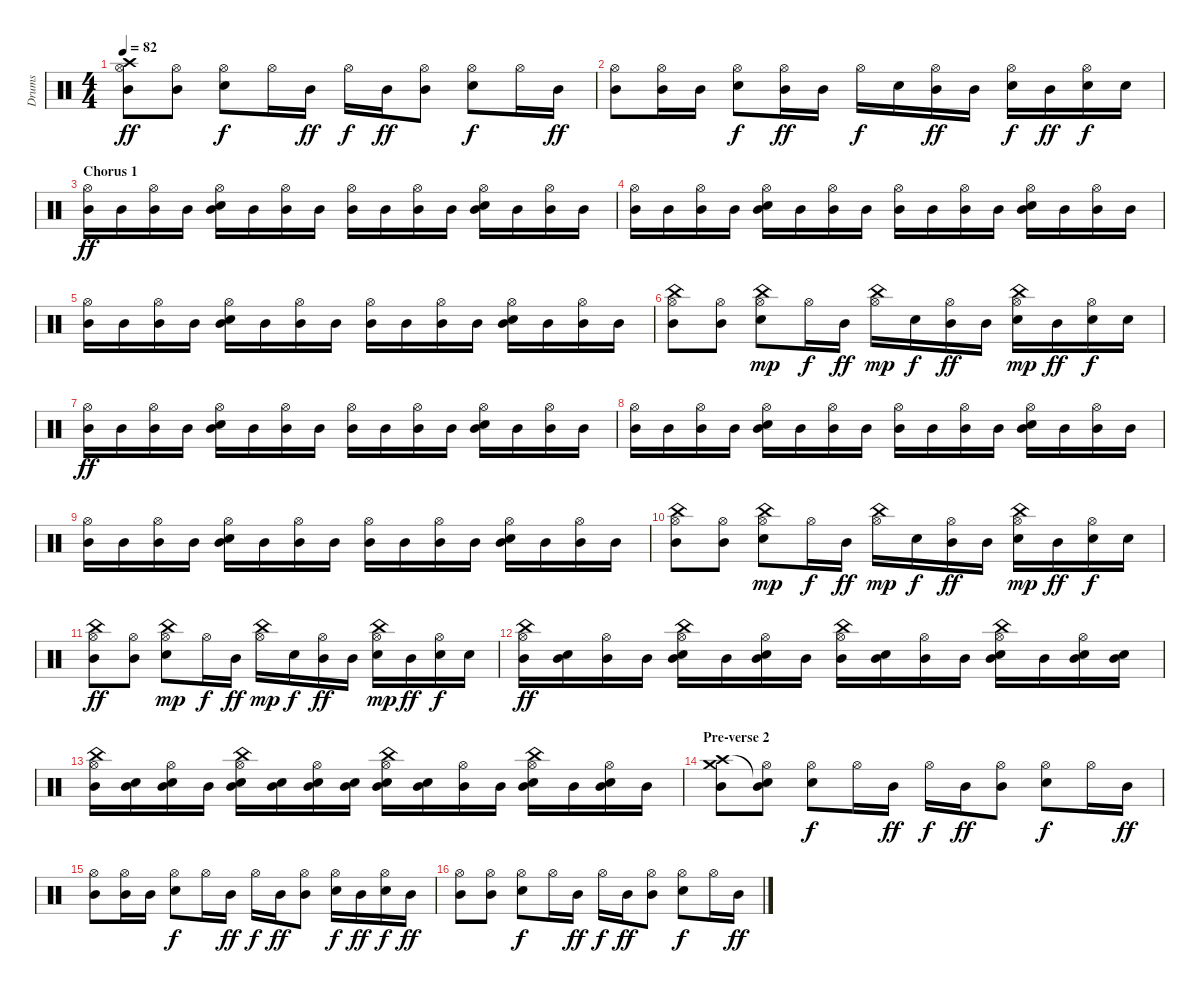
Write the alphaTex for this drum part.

\track ("Drums" "Drums") {instrument percussion}
\staff {score}
\articulation defaults
\ts (4 4)
\tempo 82
\clef neutral
\ks c
("Hi-Hat (open)" "Crash high (hit)" "Mid Tom (hit)").8{dy ff} ("Hi-Hat (open)" "Mid Tom (hit)").8 ("Hi-Hat (open)" "Electric Snare (hit)").8{dy f} "Hi-Hat (open)".16 "Mid Tom (hit)".16{dy ff} "Hi-Hat (open)".16{dy f} "Mid Tom (hit)".16{dy ff} ("Hi-Hat (open)" "Mid Tom (hit)").8 ("Hi-Hat (open)" "Electric Snare (hit)").8{dy f} "Hi-Hat (open)".16 "Mid Tom (hit)".16{dy ff} |
("Hi-Hat (open)" "Mid Tom (hit)").8 ("Hi-Hat (open)" "Mid Tom (hit)").16 "Mid Tom (hit)".16 ("Hi-Hat (open)" "Electric Snare (hit)").8{dy f} ("Hi-Hat (open)" "Mid Tom (hit)").16{dy ff} "Mid Tom (hit)".16 "Hi-Hat (open)".16{dy f} "Electric Snare (hit)".16 ("Hi-Hat (open)" "Mid Tom (hit)").16{dy ff} "Mid Tom (hit)".16 ("Hi-Hat (open)" "Electric Snare (hit)").16{dy f} "Mid Tom (hit)".16{dy ff} ("Hi-Hat (open)" "Electric Snare (hit)").16{dy f} "Electric Snare (hit)".16 |
\section ("" "Chorus 1")
("Hi-Hat (open)" "Mid Tom (hit)").16{dy ff} "Mid Tom (hit)".16 ("Hi-Hat (open)" "Mid Tom (hit)").16 "Mid Tom (hit)".16 ("Hi-Hat (open)" "Electric Snare (hit)" "Mid Tom (hit)").16 "Mid Tom (hit)".16 ("Hi-Hat (open)" "Mid Tom (hit)").16 "Mid Tom (hit)".16 ("Hi-Hat (open)" "Mid Tom (hit)").16 "Mid Tom (hit)".16 ("Hi-Hat (open)" "Mid Tom (hit)").16 "Mid Tom (hit)".16 ("Hi-Hat (open)" "Electric Snare (hit)" "Mid Tom (hit)").16 "Mid Tom (hit)".16 ("Hi-Hat (open)" "Mid Tom (hit)").16 "Mid Tom (hit)".16 |
("Hi-Hat (open)" "Mid Tom (hit)").16 "Mid Tom (hit)".16 ("Hi-Hat (open)" "Mid Tom (hit)").16 "Mid Tom (hit)".16 ("Hi-Hat (open)" "Electric Snare (hit)" "Mid Tom (hit)").16 "Mid Tom (hit)".16 ("Hi-Hat (open)" "Mid Tom (hit)").16 "Mid Tom (hit)".16 ("Hi-Hat (open)" "Mid Tom (hit)").16 "Mid Tom (hit)".16 ("Hi-Hat (open)" "Mid Tom (hit)").16 "Mid Tom (hit)".16 ("Hi-Hat (open)" "Electric Snare (hit)" "Mid Tom (hit)").16 "Mid Tom (hit)".16 ("Hi-Hat (open)" "Mid Tom (hit)").16 "Mid Tom (hit)".16 |
("Hi-Hat (open)" "Mid Tom (hit)").16 "Mid Tom (hit)".16 ("Hi-Hat (open)" "Mid Tom (hit)").16 "Mid Tom (hit)".16 ("Hi-Hat (open)" "Electric Snare (hit)" "Mid Tom (hit)").16 "Mid Tom (hit)".16 ("Hi-Hat (open)" "Mid Tom (hit)").16 "Mid Tom (hit)".16 ("Hi-Hat (open)" "Mid Tom (hit)").16 "Mid Tom (hit)".16 ("Hi-Hat (open)" "Mid Tom (hit)").16 "Mid Tom (hit)".16 ("Hi-Hat (open)" "Electric Snare (hit)" "Mid Tom (hit)").16 "Mid Tom (hit)".16 ("Hi-Hat (open)" "Mid Tom (hit)").16 "Mid Tom (hit)".16 |
("Hi-Hat (open)" "China (hit)" "Mid Tom (hit)").8 ("Hi-Hat (open)" "Mid Tom (hit)").8 ("Hi-Hat (open)" "China (hit)" "Electric Snare (hit)").8{dy mp} "Hi-Hat (open)".16{dy f} "Mid Tom (hit)".16{dy ff} ("Hi-Hat (open)" "China (hit)").16{dy mp} "Electric Snare (hit)".16{dy f} ("Hi-Hat (open)" "Mid Tom (hit)").16{dy ff} "Mid Tom (hit)".16 ("Hi-Hat (open)" "China (hit)" "Electric Snare (hit)").16{dy mp} "Mid Tom (hit)".16{dy ff} ("Hi-Hat (open)" "Electric Snare (hit)").16{dy f} "Electric Snare (hit)".16 |
("Hi-Hat (open)" "Mid Tom (hit)").16{dy ff} "Mid Tom (hit)".16 ("Hi-Hat (open)" "Mid Tom (hit)").16 "Mid Tom (hit)".16 ("Hi-Hat (open)" "Electric Snare (hit)" "Mid Tom (hit)").16 "Mid Tom (hit)".16 ("Hi-Hat (open)" "Mid Tom (hit)").16 "Mid Tom (hit)".16 ("Hi-Hat (open)" "Mid Tom (hit)").16 "Mid Tom (hit)".16 ("Hi-Hat (open)" "Mid Tom (hit)").16 "Mid Tom (hit)".16 ("Hi-Hat (open)" "Electric Snare (hit)" "Mid Tom (hit)").16 "Mid Tom (hit)".16 ("Hi-Hat (open)" "Mid Tom (hit)").16 "Mid Tom (hit)".16 |
("Hi-Hat (open)" "Mid Tom (hit)").16 "Mid Tom (hit)".16 ("Hi-Hat (open)" "Mid Tom (hit)").16 "Mid Tom (hit)".16 ("Hi-Hat (open)" "Electric Snare (hit)" "Mid Tom (hit)").16 "Mid Tom (hit)".16 ("Hi-Hat (open)" "Mid Tom (hit)").16 "Mid Tom (hit)".16 ("Hi-Hat (open)" "Mid Tom (hit)").16 "Mid Tom (hit)".16 ("Hi-Hat (open)" "Mid Tom (hit)").16 "Mid Tom (hit)".16 ("Hi-Hat (open)" "Electric Snare (hit)" "Mid Tom (hit)").16 "Mid Tom (hit)".16 ("Hi-Hat (open)" "Mid Tom (hit)").16 "Mid Tom (hit)".16 |
("Hi-Hat (open)" "Mid Tom (hit)").16 "Mid Tom (hit)".16 ("Hi-Hat (open)" "Mid Tom (hit)").16 "Mid Tom (hit)".16 ("Hi-Hat (open)" "Electric Snare (hit)" "Mid Tom (hit)").16 "Mid Tom (hit)".16 ("Hi-Hat (open)" "Mid Tom (hit)").16 "Mid Tom (hit)".16 ("Hi-Hat (open)" "Mid Tom (hit)").16 "Mid Tom (hit)".16 ("Hi-Hat (open)" "Mid Tom (hit)").16 "Mid Tom (hit)".16 ("Hi-Hat (open)" "Electric Snare (hit)" "Mid Tom (hit)").16 "Mid Tom (hit)".16 ("Hi-Hat (open)" "Mid Tom (hit)").16 "Mid Tom (hit)".16 |
("Hi-Hat (open)" "China (hit)" "Mid Tom (hit)").8 ("Hi-Hat (open)" "Mid Tom (hit)").8 ("Hi-Hat (open)" "China (hit)" "Electric Snare (hit)").8{dy mp} "Hi-Hat (open)".16{dy f} "Mid Tom (hit)".16{dy ff} ("Hi-Hat (open)" "China (hit)").16{dy mp} "Electric Snare (hit)".16{dy f} ("Hi-Hat (open)" "Mid Tom (hit)").16{dy ff} "Mid Tom (hit)".16 ("Hi-Hat (open)" "China (hit)" "Electric Snare (hit)").16{dy mp} "Mid Tom (hit)".16{dy ff} ("Hi-Hat (open)" "Electric Snare (hit)").16{dy f} "Electric Snare (hit)".16 |
("Hi-Hat (open)" "China (hit)" "Mid Tom (hit)").8{dy ff} ("Hi-Hat (open)" "Mid Tom (hit)").8 ("Hi-Hat (open)" "China (hit)" "Electric Snare (hit)").8{dy mp} "Hi-Hat (open)".16{dy f} "Mid Tom (hit)".16{dy ff} ("Hi-Hat (open)" "China (hit)").16{dy mp} "Electric Snare (hit)".16{dy f} ("Hi-Hat (open)" "Mid Tom (hit)").16{dy ff} "Mid Tom (hit)".16 ("Hi-Hat (open)" "China (hit)" "Electric Snare (hit)").16{dy mp} "Mid Tom (hit)".16{dy ff} ("Hi-Hat (open)" "Electric Snare (hit)").16{dy f} "Electric Snare (hit)".16 |
("Hi-Hat (open)" "China (hit)" "Mid Tom (hit)").16{dy ff} ("Electric Snare (hit)" "Mid Tom (hit)").16 ("Hi-Hat (open)" "Mid Tom (hit)").16 "Mid Tom (hit)".16 ("Hi-Hat (open)" "China (hit)" "Electric Snare (hit)" "Mid Tom (hit)").16 "Mid Tom (hit)".16 ("Hi-Hat (open)" "Electric Snare (hit)" "Mid Tom (hit)").16 "Mid Tom (hit)".16 ("Hi-Hat (open)" "China (hit)" "Mid Tom (hit)").16 ("Electric Snare (hit)" "Mid Tom (hit)").16 ("Hi-Hat (open)" "Mid Tom (hit)").16 "Mid Tom (hit)".16 ("Hi-Hat (open)" "China (hit)" "Electric Snare (hit)" "Mid Tom (hit)").16 "Mid Tom (hit)".16 ("Hi-Hat (open)" "Electric Snare (hit)" "Mid Tom (hit)").16 ("Electric Snare (hit)" "Mid Tom (hit)").16 |
("Hi-Hat (open)" "China (hit)" "Mid Tom (hit)").16 ("Electric Snare (hit)" "Mid Tom (hit)").16 ("Hi-Hat (open)" "Electric Snare (hit)" "Mid Tom (hit)").16 "Mid Tom (hit)".16 ("Hi-Hat (open)" "China (hit)" "Electric Snare (hit)" "Mid Tom (hit)").16 ("Electric Snare (hit)" "Mid Tom (hit)").16 ("Hi-Hat (open)" "Electric Snare (hit)" "Mid Tom (hit)").16 ("Electric Snare (hit)" "Mid Tom (hit)").16 ("Hi-Hat (open)" "China (hit)" "Electric Snare (hit)" "Mid Tom (hit)").16 ("Electric Snare (hit)" "Mid Tom (hit)").16 ("Hi-Hat (open)" "Mid Tom (hit)").16 "Mid Tom (hit)".16 ("Hi-Hat (open)" "China (hit)" "Electric Snare (hit)" "Mid Tom (hit)").16 "Mid Tom (hit)".16 ("Hi-Hat (open)" "Electric Snare (hit)" "Mid Tom (hit)").16 "Mid Tom (hit)".16 |
\section ("" "Pre-verse 2")
("Crash medium (hit)" "Crash high (hit)" "Mid Tom (hit)").8 ("Hi-Hat (open)" "Snare (hit)"{t} "Mid Tom (hit)").8 ("Hi-Hat (open)" "Electric Snare (hit)").8{dy f} "Hi-Hat (open)".16 "Mid Tom (hit)".16{dy ff} "Hi-Hat (open)".16{dy f} "Mid Tom (hit)".16{dy ff} ("Hi-Hat (open)" "Mid Tom (hit)").8 ("Hi-Hat (open)" "Electric Snare (hit)").8{dy f} "Hi-Hat (open)".16 "Mid Tom (hit)".16{dy ff} |
("Hi-Hat (open)" "Mid Tom (hit)").8 ("Hi-Hat (open)" "Mid Tom (hit)").16 "Mid Tom (hit)".16 ("Hi-Hat (open)" "Electric Snare (hit)").8{dy f} "Hi-Hat (open)".16 "Mid Tom (hit)".16{dy ff} "Hi-Hat (open)".16{dy f} "Mid Tom (hit)".16{dy ff} ("Hi-Hat (open)" "Mid Tom (hit)").8 ("Hi-Hat (open)" "Electric Snare (hit)").16{dy f} "Mid Tom (hit)".16{dy ff} ("Hi-Hat (open)" "Electric Snare (hit)").16{dy f} "Mid Tom (hit)".16{dy ff} |
("Hi-Hat (open)" "Mid Tom (hit)").8 ("Hi-Hat (open)" "Mid Tom (hit)").8 ("Hi-Hat (open)" "Electric Snare (hit)").8{dy f} "Hi-Hat (open)".16 "Mid Tom (hit)".16{dy ff} "Hi-Hat (open)".16{dy f} "Mid Tom (hit)".16{dy ff} ("Hi-Hat (open)" "Mid Tom (hit)").8 ("Hi-Hat (open)" "Electric Snare (hit)").8{dy f} "Hi-Hat (open)".16 "Mid Tom (hit)".16{dy ff}
